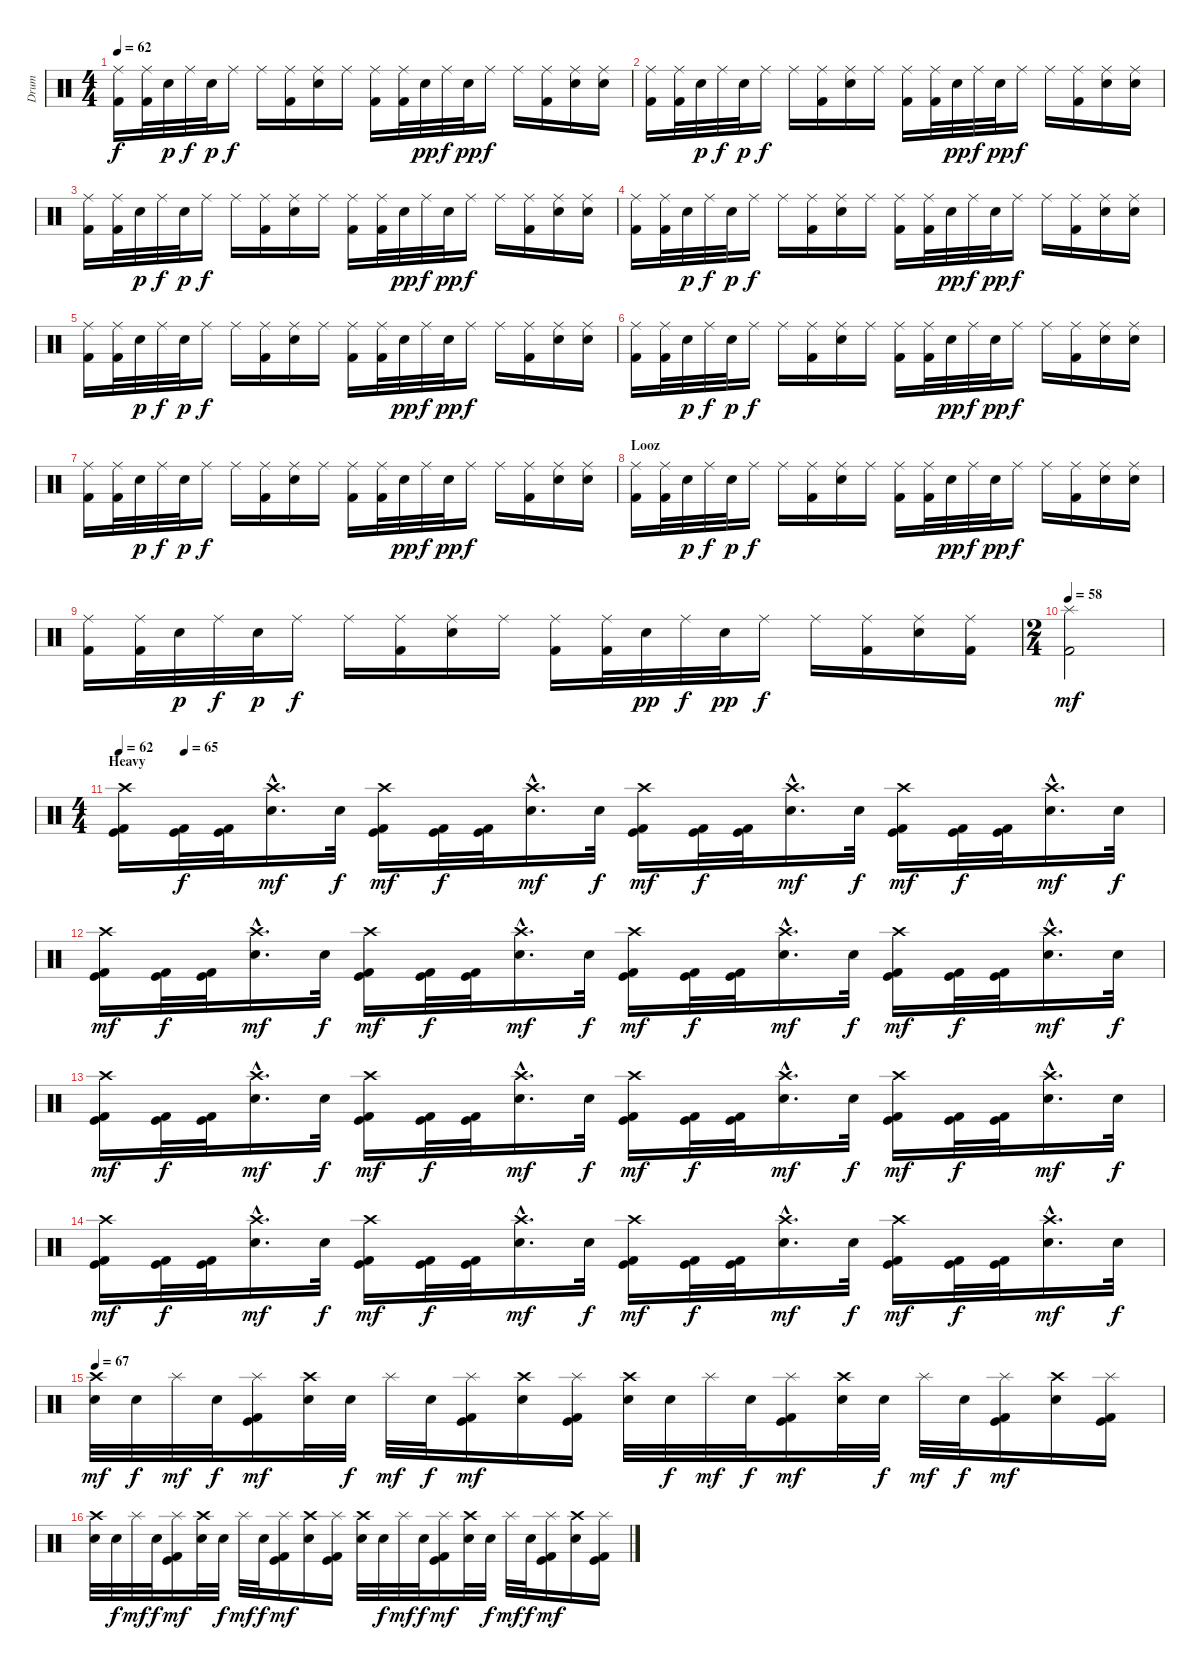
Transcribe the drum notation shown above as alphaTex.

\track ("Drum" "Drum") {instrument percussion}
\staff {score}
\articulation defaults
\ts (4 4)
\tempo 62
\clef neutral
\ks c
("Ride (middle)" "Kick (hit) 2").16{dy f} ("Ride (middle)" "Kick (hit) 2").32 "Electric Snare (hit)".32{dy p} "Ride (middle)".32{dy f} "Electric Snare (hit)".32{dy p} "Ride (middle)".16{dy f} "Ride (middle)".16 ("Ride (middle)" "Kick (hit) 2").16 ("Ride (middle)" "Electric Snare (hit)").16 "Ride (middle)".16 ("Ride (middle)" "Kick (hit) 2").16 ("Ride (middle)" "Kick (hit) 2").32 "Electric Snare (hit)".32{dy pp} "Ride (middle)".32{dy f} "Electric Snare (hit)".32{dy pp} "Ride (middle)".16{dy f} "Ride (middle)".16 ("Ride (middle)" "Kick (hit) 2").16 ("Ride (middle)" "Electric Snare (hit)").16 ("Ride (middle)" "Electric Snare (hit)").16 |
("Ride (middle)" "Kick (hit) 2").16 ("Ride (middle)" "Kick (hit) 2").32 "Electric Snare (hit)".32{dy p} "Ride (middle)".32{dy f} "Electric Snare (hit)".32{dy p} "Ride (middle)".16{dy f} "Ride (middle)".16 ("Ride (middle)" "Kick (hit) 2").16 ("Ride (middle)" "Electric Snare (hit)").16 "Ride (middle)".16 ("Ride (middle)" "Kick (hit) 2").16 ("Ride (middle)" "Kick (hit) 2").32 "Electric Snare (hit)".32{dy pp} "Ride (middle)".32{dy f} "Electric Snare (hit)".32{dy pp} "Ride (middle)".16{dy f} "Ride (middle)".16 ("Ride (middle)" "Kick (hit) 2").16 ("Ride (middle)" "Electric Snare (hit)").16 ("Ride (middle)" "Electric Snare (hit)").16 |
("Ride (middle)" "Kick (hit) 2").16 ("Ride (middle)" "Kick (hit) 2").32 "Electric Snare (hit)".32{dy p} "Ride (middle)".32{dy f} "Electric Snare (hit)".32{dy p} "Ride (middle)".16{dy f} "Ride (middle)".16 ("Ride (middle)" "Kick (hit) 2").16 ("Ride (middle)" "Electric Snare (hit)").16 "Ride (middle)".16 ("Ride (middle)" "Kick (hit) 2").16 ("Ride (middle)" "Kick (hit) 2").32 "Electric Snare (hit)".32{dy pp} "Ride (middle)".32{dy f} "Electric Snare (hit)".32{dy pp} "Ride (middle)".16{dy f} "Ride (middle)".16 ("Ride (middle)" "Kick (hit) 2").16 ("Ride (middle)" "Electric Snare (hit)").16 ("Ride (middle)" "Electric Snare (hit)").16 |
("Ride (middle)" "Kick (hit) 2").16 ("Ride (middle)" "Kick (hit) 2").32 "Electric Snare (hit)".32{dy p} "Ride (middle)".32{dy f} "Electric Snare (hit)".32{dy p} "Ride (middle)".16{dy f} "Ride (middle)".16 ("Ride (middle)" "Kick (hit) 2").16 ("Ride (middle)" "Electric Snare (hit)").16 "Ride (middle)".16 ("Ride (middle)" "Kick (hit) 2").16 ("Ride (middle)" "Kick (hit) 2").32 "Electric Snare (hit)".32{dy pp} "Ride (middle)".32{dy f} "Electric Snare (hit)".32{dy pp} "Ride (middle)".16{dy f} "Ride (middle)".16 ("Ride (middle)" "Kick (hit) 2").16 ("Ride (middle)" "Electric Snare (hit)").16 ("Ride (middle)" "Electric Snare (hit)").16 |
("Ride (middle)" "Kick (hit) 2").16 ("Ride (middle)" "Kick (hit) 2").32 "Electric Snare (hit)".32{dy p} "Ride (middle)".32{dy f} "Electric Snare (hit)".32{dy p} "Ride (middle)".16{dy f} "Ride (middle)".16 ("Ride (middle)" "Kick (hit) 2").16 ("Ride (middle)" "Electric Snare (hit)").16 "Ride (middle)".16 ("Ride (middle)" "Kick (hit) 2").16 ("Ride (middle)" "Kick (hit) 2").32 "Electric Snare (hit)".32{dy pp} "Ride (middle)".32{dy f} "Electric Snare (hit)".32{dy pp} "Ride (middle)".16{dy f} "Ride (middle)".16 ("Ride (middle)" "Kick (hit) 2").16 ("Ride (middle)" "Electric Snare (hit)").16 ("Ride (middle)" "Electric Snare (hit)").16 |
("Ride (middle)" "Kick (hit) 2").16 ("Ride (middle)" "Kick (hit) 2").32 "Electric Snare (hit)".32{dy p} "Ride (middle)".32{dy f} "Electric Snare (hit)".32{dy p} "Ride (middle)".16{dy f} "Ride (middle)".16 ("Ride (middle)" "Kick (hit) 2").16 ("Ride (middle)" "Electric Snare (hit)").16 "Ride (middle)".16 ("Ride (middle)" "Kick (hit) 2").16 ("Ride (middle)" "Kick (hit) 2").32 "Electric Snare (hit)".32{dy pp} "Ride (middle)".32{dy f} "Electric Snare (hit)".32{dy pp} "Ride (middle)".16{dy f} "Ride (middle)".16 ("Ride (middle)" "Kick (hit) 2").16 ("Ride (middle)" "Electric Snare (hit)").16 ("Ride (middle)" "Electric Snare (hit)").16 |
("Ride (middle)" "Kick (hit) 2").16 ("Ride (middle)" "Kick (hit) 2").32 "Electric Snare (hit)".32{dy p} "Ride (middle)".32{dy f} "Electric Snare (hit)".32{dy p} "Ride (middle)".16{dy f} "Ride (middle)".16 ("Ride (middle)" "Kick (hit) 2").16 ("Ride (middle)" "Electric Snare (hit)").16 "Ride (middle)".16 ("Ride (middle)" "Kick (hit) 2").16 ("Ride (middle)" "Kick (hit) 2").32 "Electric Snare (hit)".32{dy pp} "Ride (middle)".32{dy f} "Electric Snare (hit)".32{dy pp} "Ride (middle)".16{dy f} "Ride (middle)".16 ("Ride (middle)" "Kick (hit) 2").16 ("Ride (middle)" "Electric Snare (hit)").16 ("Ride (middle)" "Electric Snare (hit)").16 |
\section ("" "Looz")
("Ride (middle)" "Kick (hit) 2").16 ("Ride (middle)" "Kick (hit) 2").32 "Electric Snare (hit)".32{dy p} "Ride (middle)".32{dy f} "Electric Snare (hit)".32{dy p} "Ride (middle)".16{dy f} "Ride (middle)".16 ("Ride (middle)" "Kick (hit) 2").16 ("Ride (middle)" "Electric Snare (hit)").16 "Ride (middle)".16 ("Ride (middle)" "Kick (hit) 2").16 ("Ride (middle)" "Kick (hit) 2").32 "Electric Snare (hit)".32{dy pp} "Ride (middle)".32{dy f} "Electric Snare (hit)".32{dy pp} "Ride (middle)".16{dy f} "Ride (middle)".16 ("Ride (middle)" "Kick (hit) 2").16 ("Ride (middle)" "Electric Snare (hit)").16 ("Ride (middle)" "Electric Snare (hit)").16 |
("Ride (middle)" "Kick (hit) 2").16 ("Ride (middle)" "Kick (hit) 2").32 "Electric Snare (hit)".32{dy p} "Ride (middle)".32{dy f} "Electric Snare (hit)".32{dy p} "Ride (middle)".16{dy f} "Ride (middle)".16 ("Ride (middle)" "Kick (hit) 2").16 ("Ride (middle)" "Electric Snare (hit)").16 "Ride (middle)".16 ("Ride (middle)" "Kick (hit) 2").16 ("Ride (middle)" "Kick (hit) 2").32 "Electric Snare (hit)".32{dy pp} "Ride (middle)".32{dy f} "Electric Snare (hit)".32{dy pp} "Ride (middle)".16{dy f} "Ride (middle)".16 ("Ride (middle)" "Kick (hit) 2").16 ("Ride (middle)" "Electric Snare (hit)").16 ("Ride (middle)" "Kick (hit) 2").16 |
\ts (2 4)
\tempo 58
("Splash (hit)" "Kick (hit) 2").2{dy mf} |
\ts (4 4)
\section ("" "Heavy")
\tempo 62
\tempo (65 0.0625)
("Crash high (hit)" "Kick (hit)" "Kick (hit) 2").16 ("Kick (hit)" "Kick (hit) 2").32{dy f} ("Kick (hit)" "Kick (hit) 2").32 ("Crash high (hit)"{hac} "Electric Snare (hit)"{hac}).16{d dy mf} "Electric Snare (hit)".32{dy f} ("Crash high (hit)" "Kick (hit)" "Kick (hit) 2").16{dy mf} ("Kick (hit)" "Kick (hit) 2").32{dy f} ("Kick (hit)" "Kick (hit) 2").32 ("Crash high (hit)"{hac} "Electric Snare (hit)"{hac}).16{d dy mf} "Electric Snare (hit)".32{dy f} ("Crash high (hit)" "Kick (hit)" "Kick (hit) 2").16{dy mf} ("Kick (hit)" "Kick (hit) 2").32{dy f} ("Kick (hit)" "Kick (hit) 2").32 ("Crash high (hit)"{hac} "Electric Snare (hit)"{hac}).16{d dy mf} "Electric Snare (hit)".32{dy f} ("Crash high (hit)" "Kick (hit)" "Kick (hit) 2").16{dy mf} ("Kick (hit)" "Kick (hit) 2").32{dy f} ("Kick (hit)" "Kick (hit) 2").32 ("Crash high (hit)"{hac} "Electric Snare (hit)"{hac}).16{d dy mf} "Electric Snare (hit)".32{dy f} |
("Crash high (hit)" "Kick (hit)" "Kick (hit) 2").16{dy mf} ("Kick (hit)" "Kick (hit) 2").32{dy f} ("Kick (hit)" "Kick (hit) 2").32 ("Crash high (hit)"{hac} "Electric Snare (hit)"{hac}).16{d dy mf} "Electric Snare (hit)".32{dy f} ("Crash high (hit)" "Kick (hit)" "Kick (hit) 2").16{dy mf} ("Kick (hit)" "Kick (hit) 2").32{dy f} ("Kick (hit)" "Kick (hit) 2").32 ("Crash high (hit)"{hac} "Electric Snare (hit)"{hac}).16{d dy mf} "Electric Snare (hit)".32{dy f} ("Crash high (hit)" "Kick (hit)" "Kick (hit) 2").16{dy mf} ("Kick (hit)" "Kick (hit) 2").32{dy f} ("Kick (hit)" "Kick (hit) 2").32 ("Crash high (hit)"{hac} "Electric Snare (hit)"{hac}).16{d dy mf} "Electric Snare (hit)".32{dy f} ("Crash high (hit)" "Kick (hit)" "Kick (hit) 2").16{dy mf} ("Kick (hit)" "Kick (hit) 2").32{dy f} ("Kick (hit)" "Kick (hit) 2").32 ("Crash high (hit)"{hac} "Electric Snare (hit)"{hac}).16{d dy mf} "Electric Snare (hit)".32{dy f} |
("Crash high (hit)" "Kick (hit)" "Kick (hit) 2").16{dy mf} ("Kick (hit)" "Kick (hit) 2").32{dy f} ("Kick (hit)" "Kick (hit) 2").32 ("Crash high (hit)"{hac} "Electric Snare (hit)"{hac}).16{d dy mf} "Electric Snare (hit)".32{dy f} ("Crash high (hit)" "Kick (hit)" "Kick (hit) 2").16{dy mf} ("Kick (hit)" "Kick (hit) 2").32{dy f} ("Kick (hit)" "Kick (hit) 2").32 ("Crash high (hit)"{hac} "Electric Snare (hit)"{hac}).16{d dy mf} "Electric Snare (hit)".32{dy f} ("Crash high (hit)" "Kick (hit)" "Kick (hit) 2").16{dy mf} ("Kick (hit)" "Kick (hit) 2").32{dy f} ("Kick (hit)" "Kick (hit) 2").32 ("Crash high (hit)"{hac} "Electric Snare (hit)"{hac}).16{d dy mf} "Electric Snare (hit)".32{dy f} ("Crash high (hit)" "Kick (hit)" "Kick (hit) 2").16{dy mf} ("Kick (hit)" "Kick (hit) 2").32{dy f} ("Kick (hit)" "Kick (hit) 2").32 ("Crash high (hit)"{hac} "Electric Snare (hit)"{hac}).16{d dy mf} "Electric Snare (hit)".32{dy f} |
("Crash high (hit)" "Kick (hit)" "Kick (hit) 2").16{dy mf} ("Kick (hit)" "Kick (hit) 2").32{dy f} ("Kick (hit)" "Kick (hit) 2").32 ("Crash high (hit)"{hac} "Electric Snare (hit)"{hac}).16{d dy mf} "Electric Snare (hit)".32{dy f} ("Crash high (hit)" "Kick (hit)" "Kick (hit) 2").16{dy mf} ("Kick (hit)" "Kick (hit) 2").32{dy f} ("Kick (hit)" "Kick (hit) 2").32 ("Crash high (hit)"{hac} "Electric Snare (hit)"{hac}).16{d dy mf} "Electric Snare (hit)".32{dy f} ("Crash high (hit)" "Kick (hit)" "Kick (hit) 2").16{dy mf} ("Kick (hit)" "Kick (hit) 2").32{dy f} ("Kick (hit)" "Kick (hit) 2").32 ("Crash high (hit)"{hac} "Electric Snare (hit)"{hac}).16{d dy mf} "Electric Snare (hit)".32{dy f} ("Crash high (hit)" "Kick (hit)" "Kick (hit) 2").16{dy mf} ("Kick (hit)" "Kick (hit) 2").32{dy f} ("Kick (hit)" "Kick (hit) 2").32 ("Crash high (hit)"{hac} "Electric Snare (hit)"{hac}).16{d dy mf} "Electric Snare (hit)".32{dy f} |
\tempo 67
("Crash high (hit)" "Electric Snare (hit)").32{dy mf} "Electric Snare (hit)".32{dy f} "Splash (hit)".32{dy mf} "Electric Snare (hit)".32{dy f} ("Splash (hit)" "Kick (hit)" "Kick (hit) 2").16{dy mf} ("Crash high (hit)" "Electric Snare (hit)").32 "Electric Snare (hit)".32{dy f} "Splash (hit)".32{dy mf} "Electric Snare (hit)".32{dy f} ("Splash (hit)" "Kick (hit)" "Kick (hit) 2").16{dy mf} ("Crash high (hit)" "Electric Snare (hit)").16 ("Splash (hit)" "Kick (hit)" "Kick (hit) 2").16 ("Crash high (hit)" "Electric Snare (hit)").32 "Electric Snare (hit)".32{dy f} "Splash (hit)".32{dy mf} "Electric Snare (hit)".32{dy f} ("Splash (hit)" "Kick (hit)" "Kick (hit) 2").16{dy mf} ("Crash high (hit)" "Electric Snare (hit)").32 "Electric Snare (hit)".32{dy f} "Splash (hit)".32{dy mf} "Electric Snare (hit)".32{dy f} ("Splash (hit)" "Kick (hit)" "Kick (hit) 2").16{dy mf} ("Crash high (hit)" "Electric Snare (hit)").16 ("Splash (hit)" "Kick (hit)" "Kick (hit) 2").16 |
("Crash high (hit)" "Electric Snare (hit)").32 "Electric Snare (hit)".32{dy f} "Splash (hit)".32{dy mf} "Electric Snare (hit)".32{dy f} ("Splash (hit)" "Kick (hit)" "Kick (hit) 2").16{dy mf} ("Crash high (hit)" "Electric Snare (hit)").32 "Electric Snare (hit)".32{dy f} "Splash (hit)".32{dy mf} "Electric Snare (hit)".32{dy f} ("Splash (hit)" "Kick (hit)" "Kick (hit) 2").16{dy mf} ("Crash high (hit)" "Electric Snare (hit)").16 ("Splash (hit)" "Kick (hit)" "Kick (hit) 2").16 ("Crash high (hit)" "Electric Snare (hit)").32 "Electric Snare (hit)".32{dy f} "Splash (hit)".32{dy mf} "Electric Snare (hit)".32{dy f} ("Splash (hit)" "Kick (hit)" "Kick (hit) 2").16{dy mf} ("Crash high (hit)" "Electric Snare (hit)").32 "Electric Snare (hit)".32{dy f} "Splash (hit)".32{dy mf} "Electric Snare (hit)".32{dy f} ("Splash (hit)" "Kick (hit)" "Kick (hit) 2").16{dy mf} ("Crash high (hit)" "Electric Snare (hit)").16 ("Splash (hit)" "Kick (hit)" "Kick (hit) 2").16
